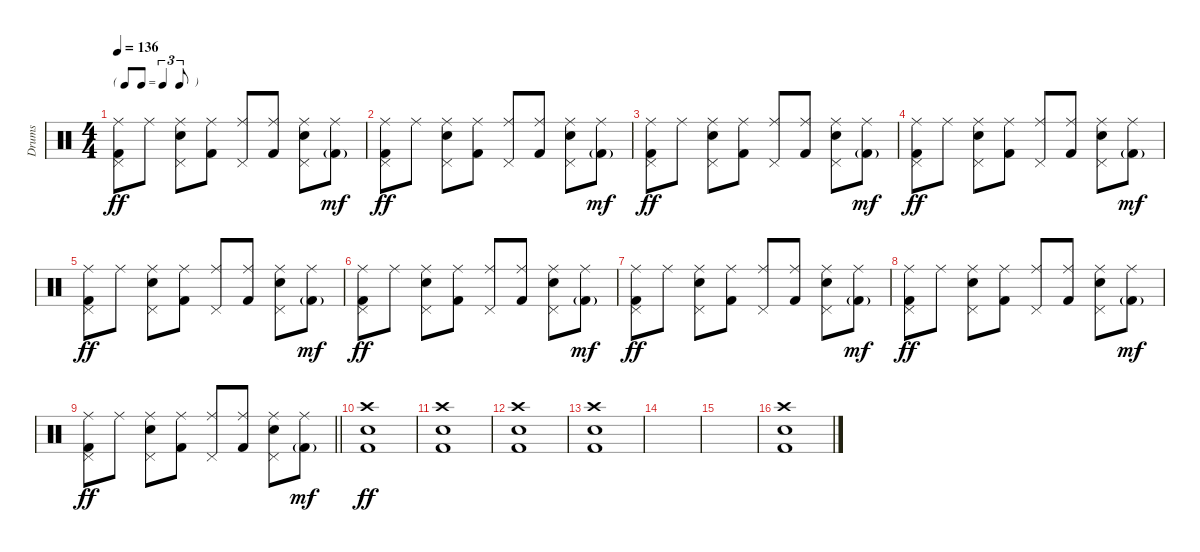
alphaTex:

\track ("Drums" "Drums") {instrument percussion}
\staff {score}
\articulation defaults
\ts (4 4)
\tf triplet8th
\tempo 136
\clef neutral
\ks c
("Ride (middle)" "Pedal Hi-Hat (hit)" "Kick (hit) 2").8{dy ff} "Ride (middle)".8 ("Ride (middle)" "Pedal Hi-Hat (hit)" "Snare (hit) 2").8 ("Ride (middle)" "Kick (hit) 2").8 ("Ride (middle)" "Pedal Hi-Hat (hit)").8 ("Ride (middle)" "Kick (hit) 2").8 ("Ride (middle)" "Pedal Hi-Hat (hit)" "Snare (hit) 2").8 ("Ride (middle)" "Kick (hit) 2"{g}).8{dy mf} |
("Ride (middle)" "Pedal Hi-Hat (hit)" "Kick (hit) 2").8{dy ff} "Ride (middle)".8 ("Ride (middle)" "Pedal Hi-Hat (hit)" "Snare (hit) 2").8 ("Ride (middle)" "Kick (hit) 2").8 ("Ride (middle)" "Pedal Hi-Hat (hit)").8 ("Ride (middle)" "Kick (hit) 2").8 ("Ride (middle)" "Pedal Hi-Hat (hit)" "Snare (hit) 2").8 ("Ride (middle)" "Kick (hit) 2"{g}).8{dy mf} |
("Ride (middle)" "Pedal Hi-Hat (hit)" "Kick (hit) 2").8{dy ff} "Ride (middle)".8 ("Ride (middle)" "Pedal Hi-Hat (hit)" "Snare (hit) 2").8 ("Ride (middle)" "Kick (hit) 2").8 ("Ride (middle)" "Pedal Hi-Hat (hit)").8 ("Ride (middle)" "Kick (hit) 2").8 ("Ride (middle)" "Pedal Hi-Hat (hit)" "Snare (hit) 2").8 ("Ride (middle)" "Kick (hit) 2"{g}).8{dy mf} |
("Ride (middle)" "Pedal Hi-Hat (hit)" "Kick (hit) 2").8{dy ff} "Ride (middle)".8 ("Ride (middle)" "Pedal Hi-Hat (hit)" "Snare (hit) 2").8 ("Ride (middle)" "Kick (hit) 2").8 ("Ride (middle)" "Pedal Hi-Hat (hit)").8 ("Ride (middle)" "Kick (hit) 2").8 ("Ride (middle)" "Pedal Hi-Hat (hit)" "Snare (hit) 2").8 ("Ride (middle)" "Kick (hit) 2"{g}).8{dy mf} |
("Ride (middle)" "Pedal Hi-Hat (hit)" "Kick (hit) 2").8{dy ff} "Ride (middle)".8 ("Ride (middle)" "Pedal Hi-Hat (hit)" "Snare (hit) 2").8 ("Ride (middle)" "Kick (hit) 2").8 ("Ride (middle)" "Pedal Hi-Hat (hit)").8 ("Ride (middle)" "Kick (hit) 2").8 ("Ride (middle)" "Pedal Hi-Hat (hit)" "Snare (hit) 2").8 ("Ride (middle)" "Kick (hit) 2"{g}).8{dy mf} |
("Ride (middle)" "Pedal Hi-Hat (hit)" "Kick (hit) 2").8{dy ff} "Ride (middle)".8 ("Ride (middle)" "Pedal Hi-Hat (hit)" "Snare (hit) 2").8 ("Ride (middle)" "Kick (hit) 2").8 ("Ride (middle)" "Pedal Hi-Hat (hit)").8 ("Ride (middle)" "Kick (hit) 2").8 ("Ride (middle)" "Pedal Hi-Hat (hit)" "Snare (hit) 2").8 ("Ride (middle)" "Kick (hit) 2"{g}).8{dy mf} |
("Ride (middle)" "Pedal Hi-Hat (hit)" "Kick (hit) 2").8{dy ff} "Ride (middle)".8 ("Ride (middle)" "Pedal Hi-Hat (hit)" "Snare (hit) 2").8 ("Ride (middle)" "Kick (hit) 2").8 ("Ride (middle)" "Pedal Hi-Hat (hit)").8 ("Ride (middle)" "Kick (hit) 2").8 ("Ride (middle)" "Pedal Hi-Hat (hit)" "Snare (hit) 2").8 ("Ride (middle)" "Kick (hit) 2"{g}).8{dy mf} |
("Ride (middle)" "Pedal Hi-Hat (hit)" "Kick (hit) 2").8{dy ff} "Ride (middle)".8 ("Ride (middle)" "Pedal Hi-Hat (hit)" "Snare (hit) 2").8 ("Ride (middle)" "Kick (hit) 2").8 ("Ride (middle)" "Pedal Hi-Hat (hit)").8 ("Ride (middle)" "Kick (hit) 2").8 ("Ride (middle)" "Pedal Hi-Hat (hit)" "Snare (hit) 2").8 ("Ride (middle)" "Kick (hit) 2"{g}).8{dy mf} |
\barLineRight lightlight
("Ride (middle)" "Pedal Hi-Hat (hit)" "Kick (hit) 2").8{dy ff} "Ride (middle)".8 ("Ride (middle)" "Pedal Hi-Hat (hit)" "Snare (hit) 2").8 ("Ride (middle)" "Kick (hit) 2").8 ("Ride (middle)" "Pedal Hi-Hat (hit)").8 ("Ride (middle)" "Kick (hit) 2").8 ("Ride (middle)" "Pedal Hi-Hat (hit)" "Snare (hit) 2").8 ("Ride (middle)" "Kick (hit) 2"{g}).8{dy mf} |
("Crash high (hit)" "Snare (hit) 2" "Kick (hit) 2").1{dy ff} |
("Crash high (hit)" "Snare (hit) 2" "Kick (hit) 2").1 |
("Crash high (hit)" "Snare (hit) 2" "Kick (hit) 2").1 |
("Crash high (hit)" "Snare (hit) 2" "Kick (hit) 2").1 |
|
|
("Crash high (hit)" "Snare (hit) 2" "Kick (hit) 2").1
